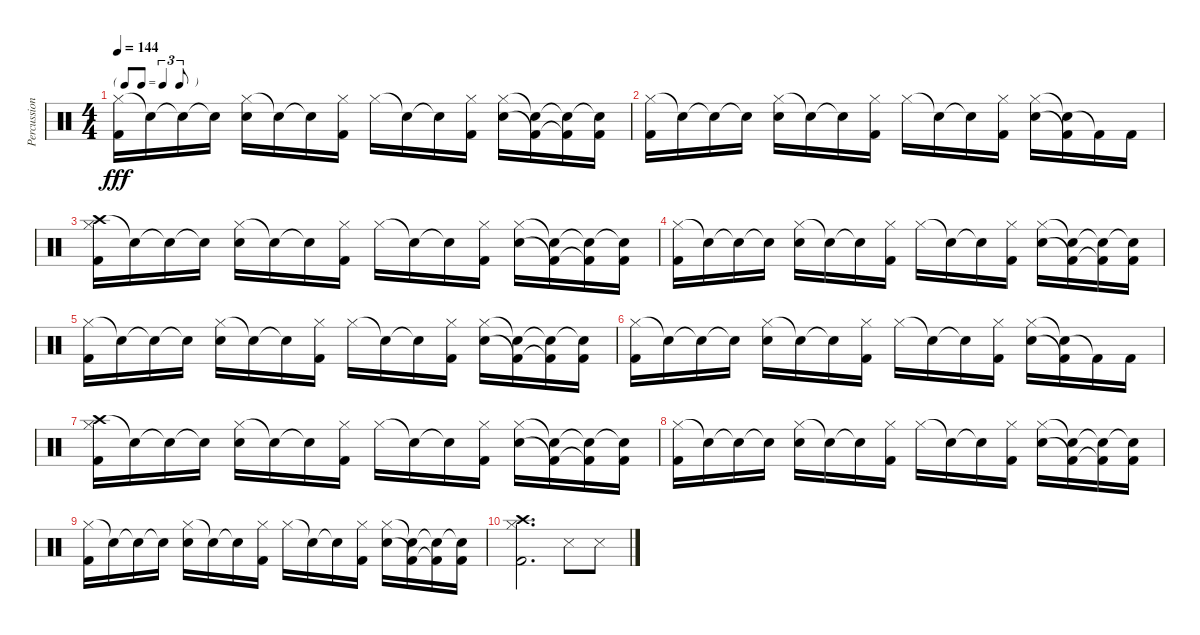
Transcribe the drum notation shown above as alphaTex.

\track ("Percussion" "Percussion") {instrument percussion}
\staff {score}
\articulation defaults
\ts (4 4)
\tf triplet8th
\tempo 144
\clef neutral
\ks c
("Hi-Hat (closed)" "Kick (hit) 2").16{dy fff} "Snare (hit)"{t}.16 "Snare (hit)"{t}.16 "Snare (hit)"{t}.16 ("Hi-Hat (closed)" "Electric Snare (hit)").16 "Snare (hit)"{t}.16 "Snare (hit)"{t}.16 ("Hi-Hat (closed)" "Kick (hit) 2").16 "Hi-Hat (closed)".16 "Snare (hit)"{t}.16 "Snare (hit)"{t}.16 ("Hi-Hat (closed)" "Kick (hit) 2").16 ("Hi-Hat (closed)" "Electric Snare (hit)").16 ("Snare (hit)"{t} "Kick (hit) 2"{t}).16 ("Snare (hit)"{t} "Kick (hit) 2"{t}).16 ("Snare (hit)"{t} "Kick (hit) 2").16 |
("Hi-Hat (closed)" "Kick (hit) 2").16 "Snare (hit)"{t}.16 "Snare (hit)"{t}.16 "Snare (hit)"{t}.16 ("Hi-Hat (closed)" "Electric Snare (hit)").16 "Snare (hit)"{t}.16 "Snare (hit)"{t}.16 ("Hi-Hat (closed)" "Kick (hit) 2").16 "Hi-Hat (closed)".16 "Snare (hit)"{t}.16 "Snare (hit)"{t}.16 ("Hi-Hat (closed)" "Kick (hit) 2").16 ("Hi-Hat (closed)" "Electric Snare (hit)").16 ("Snare (hit)"{t} "Kick (hit) 2"{t}).16 "Kick (hit) 2"{t}.16 "Kick (hit) 2".16 |
("Crash high (hit)" "Hi-Hat (closed)" "Kick (hit) 2").16 "Snare (hit)"{t}.16 "Snare (hit)"{t}.16 "Snare (hit)"{t}.16 ("Hi-Hat (closed)" "Electric Snare (hit)").16 "Snare (hit)"{t}.16 "Snare (hit)"{t}.16 ("Hi-Hat (closed)" "Kick (hit) 2").16 "Hi-Hat (closed)".16 "Snare (hit)"{t}.16 "Snare (hit)"{t}.16 ("Hi-Hat (closed)" "Kick (hit) 2").16 ("Hi-Hat (closed)" "Electric Snare (hit)").16 ("Snare (hit)"{t} "Kick (hit) 2"{t}).16 ("Snare (hit)"{t} "Kick (hit) 2"{t}).16 ("Snare (hit)"{t} "Kick (hit) 2").16 |
("Hi-Hat (closed)" "Kick (hit) 2").16 "Snare (hit)"{t}.16 "Snare (hit)"{t}.16 "Snare (hit)"{t}.16 ("Hi-Hat (closed)" "Electric Snare (hit)").16 "Snare (hit)"{t}.16 "Snare (hit)"{t}.16 ("Hi-Hat (closed)" "Kick (hit) 2").16 "Hi-Hat (closed)".16 "Snare (hit)"{t}.16 "Snare (hit)"{t}.16 ("Hi-Hat (closed)" "Kick (hit) 2").16 ("Hi-Hat (closed)" "Electric Snare (hit)").16 ("Snare (hit)"{t} "Kick (hit) 2"{t}).16 ("Snare (hit)"{t} "Kick (hit) 2"{t}).16 ("Snare (hit)"{t} "Kick (hit) 2").16 |
("Hi-Hat (closed)" "Kick (hit) 2").16 "Snare (hit)"{t}.16 "Snare (hit)"{t}.16 "Snare (hit)"{t}.16 ("Hi-Hat (closed)" "Electric Snare (hit)").16 "Snare (hit)"{t}.16 "Snare (hit)"{t}.16 ("Hi-Hat (closed)" "Kick (hit) 2").16 "Hi-Hat (closed)".16 "Snare (hit)"{t}.16 "Snare (hit)"{t}.16 ("Hi-Hat (closed)" "Kick (hit) 2").16 ("Hi-Hat (closed)" "Electric Snare (hit)").16 ("Snare (hit)"{t} "Kick (hit) 2"{t}).16 ("Snare (hit)"{t} "Kick (hit) 2"{t}).16 ("Snare (hit)"{t} "Kick (hit) 2").16 |
("Hi-Hat (closed)" "Kick (hit) 2").16 "Snare (hit)"{t}.16 "Snare (hit)"{t}.16 "Snare (hit)"{t}.16 ("Hi-Hat (closed)" "Electric Snare (hit)").16 "Snare (hit)"{t}.16 "Snare (hit)"{t}.16 ("Hi-Hat (closed)" "Kick (hit) 2").16 "Hi-Hat (closed)".16 "Snare (hit)"{t}.16 "Snare (hit)"{t}.16 ("Hi-Hat (closed)" "Kick (hit) 2").16 ("Hi-Hat (closed)" "Electric Snare (hit)").16 ("Snare (hit)"{t} "Kick (hit) 2"{t}).16 "Kick (hit) 2"{t}.16 "Kick (hit) 2".16 |
("Crash high (hit)" "Hi-Hat (closed)" "Kick (hit) 2").16 "Snare (hit)"{t}.16 "Snare (hit)"{t}.16 "Snare (hit)"{t}.16 ("Hi-Hat (closed)" "Electric Snare (hit)").16 "Snare (hit)"{t}.16 "Snare (hit)"{t}.16 ("Hi-Hat (closed)" "Kick (hit) 2").16 "Hi-Hat (closed)".16 "Snare (hit)"{t}.16 "Snare (hit)"{t}.16 ("Hi-Hat (closed)" "Kick (hit) 2").16 ("Hi-Hat (closed)" "Electric Snare (hit)").16 ("Snare (hit)"{t} "Kick (hit) 2"{t}).16 ("Snare (hit)"{t} "Kick (hit) 2"{t}).16 ("Snare (hit)"{t} "Kick (hit) 2").16 |
("Hi-Hat (closed)" "Kick (hit) 2").16 "Snare (hit)"{t}.16 "Snare (hit)"{t}.16 "Snare (hit)"{t}.16 ("Hi-Hat (closed)" "Electric Snare (hit)").16 "Snare (hit)"{t}.16 "Snare (hit)"{t}.16 ("Hi-Hat (closed)" "Kick (hit) 2").16 "Hi-Hat (closed)".16 "Snare (hit)"{t}.16 "Snare (hit)"{t}.16 ("Hi-Hat (closed)" "Kick (hit) 2").16 ("Hi-Hat (closed)" "Electric Snare (hit)").16 ("Snare (hit)"{t} "Kick (hit) 2"{t}).16 ("Snare (hit)"{t} "Kick (hit) 2"{t}).16 ("Snare (hit)"{t} "Kick (hit) 2").16 |
("Hi-Hat (closed)" "Kick (hit) 2").16 "Snare (hit)"{t}.16 "Snare (hit)"{t}.16 "Snare (hit)"{t}.16 ("Hi-Hat (closed)" "Electric Snare (hit)").16 "Snare (hit)"{t}.16 "Snare (hit)"{t}.16 ("Hi-Hat (closed)" "Kick (hit) 2").16 "Hi-Hat (closed)".16 "Snare (hit)"{t}.16 "Snare (hit)"{t}.16 ("Hi-Hat (closed)" "Kick (hit) 2").16 ("Hi-Hat (closed)" "Electric Snare (hit)").16 ("Snare (hit)"{t} "Kick (hit) 2"{t}).16 ("Snare (hit)"{t} "Kick (hit) 2"{t}).16 ("Snare (hit)"{t} "Kick (hit) 2").16 |
("Crash high (hit)" "Hi-Hat (closed)" "Kick (hit) 2").2{d} "Snare (side stick) 3".8 "Snare (side stick) 3".8
